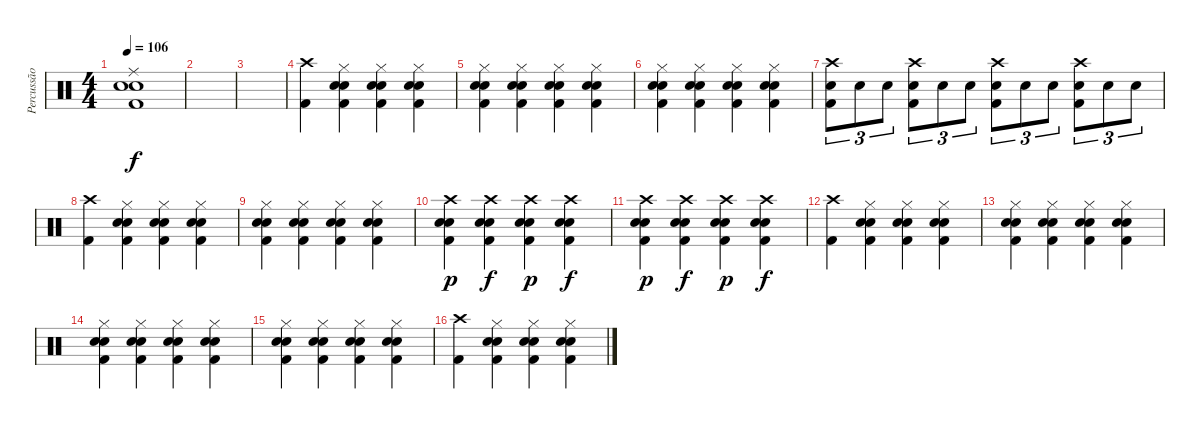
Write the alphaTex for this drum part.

\track ("Percussão" "Percussão") {instrument percussion}
\staff {score}
\articulation defaults
\ts (4 4)
\tempo 106
\clef neutral
\ks c
("Ride (middle)" "Snare (hit) 2" "Snare (hit) 2" "Kick (hit) 2").1{dy f} |
|
|
("Crash high (hit)" "Kick (hit) 2").4 ("Hi-Hat (closed)" "Snare (hit) 2" "Snare (hit) 2" "Kick (hit) 2").4 ("Hi-Hat (closed)" "Snare (hit) 2" "Snare (hit) 2" "Kick (hit) 2").4 ("Hi-Hat (closed)" "Snare (hit) 2" "Snare (hit) 2" "Kick (hit) 2").4 |
("Hi-Hat (closed)" "Snare (hit) 2" "Snare (hit) 2" "Kick (hit) 2").4 ("Hi-Hat (closed)" "Snare (hit) 2" "Snare (hit) 2" "Kick (hit) 2").4 ("Hi-Hat (closed)" "Snare (hit) 2" "Snare (hit) 2" "Kick (hit) 2").4 ("Hi-Hat (closed)" "Snare (hit) 2" "Snare (hit) 2" "Kick (hit) 2").4 |
("Hi-Hat (closed)" "Snare (hit) 2" "Snare (hit) 2" "Kick (hit) 2").4 ("Hi-Hat (closed)" "Snare (hit) 2" "Snare (hit) 2" "Kick (hit) 2").4 ("Hi-Hat (closed)" "Snare (hit) 2" "Snare (hit) 2" "Kick (hit) 2").4 ("Hi-Hat (closed)" "Snare (hit) 2" "Snare (hit) 2" "Kick (hit) 2").4 |
("Crash high (hit)" "Snare (hit) 2" "Kick (hit) 2").8{tu (3 2)} "Snare (hit) 2".8{tu (3 2)} "Snare (hit) 2".8{tu (3 2)} ("Crash high (hit)" "Snare (hit) 2" "Kick (hit) 2").8{tu (3 2)} "Snare (hit) 2".8{tu (3 2)} "Snare (hit) 2".8{tu (3 2)} ("Crash high (hit)" "Snare (hit) 2" "Kick (hit) 2").8{tu (3 2)} "Snare (hit) 2".8{tu (3 2)} "Snare (hit) 2".8{tu (3 2)} ("Crash high (hit)" "Snare (hit) 2" "Kick (hit) 2").8{tu (3 2)} "Snare (hit) 2".8{tu (3 2)} "Snare (hit) 2".8{tu (3 2)} |
("Crash high (hit)" "Kick (hit) 2").4 ("Hi-Hat (closed)" "Snare (hit) 2" "Snare (hit) 2" "Kick (hit) 2").4 ("Hi-Hat (closed)" "Snare (hit) 2" "Snare (hit) 2" "Kick (hit) 2").4 ("Hi-Hat (closed)" "Snare (hit) 2" "Snare (hit) 2" "Kick (hit) 2").4 |
("Hi-Hat (closed)" "Snare (hit) 2" "Snare (hit) 2" "Kick (hit) 2").4 ("Hi-Hat (closed)" "Snare (hit) 2" "Snare (hit) 2" "Kick (hit) 2").4 ("Hi-Hat (closed)" "Snare (hit) 2" "Snare (hit) 2" "Kick (hit) 2").4 ("Hi-Hat (closed)" "Snare (hit) 2" "Snare (hit) 2" "Kick (hit) 2").4 |
("Crash high (hit)" "Snare (hit) 2" "Snare (hit) 2" "Kick (hit) 2").4{dy p} ("Crash high (hit)" "Snare (hit) 2" "Snare (hit) 2" "Kick (hit) 2").4{dy f} ("Crash high (hit)" "Snare (hit) 2" "Snare (hit) 2" "Kick (hit) 2").4{dy p} ("Crash high (hit)" "Snare (hit) 2" "Snare (hit) 2" "Kick (hit) 2").4{dy f} |
("Crash high (hit)" "Snare (hit) 2" "Snare (hit) 2" "Kick (hit) 2").4{dy p} ("Crash high (hit)" "Snare (hit) 2" "Snare (hit) 2" "Kick (hit) 2").4{dy f} ("Crash high (hit)" "Snare (hit) 2" "Snare (hit) 2" "Kick (hit) 2").4{dy p} ("Crash high (hit)" "Snare (hit) 2" "Snare (hit) 2" "Kick (hit) 2").4{dy f} |
("Crash high (hit)" "Kick (hit) 2").4 ("Hi-Hat (closed)" "Snare (hit) 2" "Snare (hit) 2" "Kick (hit) 2").4 ("Hi-Hat (closed)" "Snare (hit) 2" "Snare (hit) 2" "Kick (hit) 2").4 ("Hi-Hat (closed)" "Snare (hit) 2" "Snare (hit) 2" "Kick (hit) 2").4 |
("Hi-Hat (closed)" "Snare (hit) 2" "Snare (hit) 2" "Kick (hit) 2").4 ("Hi-Hat (closed)" "Snare (hit) 2" "Snare (hit) 2" "Kick (hit) 2").4 ("Hi-Hat (closed)" "Snare (hit) 2" "Snare (hit) 2" "Kick (hit) 2").4 ("Hi-Hat (closed)" "Snare (hit) 2" "Snare (hit) 2" "Kick (hit) 2").4 |
("Hi-Hat (closed)" "Snare (hit) 2" "Snare (hit) 2" "Kick (hit) 2").4 ("Hi-Hat (closed)" "Snare (hit) 2" "Snare (hit) 2" "Kick (hit) 2").4 ("Hi-Hat (closed)" "Snare (hit) 2" "Snare (hit) 2" "Kick (hit) 2").4 ("Hi-Hat (closed)" "Snare (hit) 2" "Snare (hit) 2" "Kick (hit) 2").4 |
("Hi-Hat (closed)" "Snare (hit) 2" "Snare (hit) 2" "Kick (hit) 2").4 ("Hi-Hat (closed)" "Snare (hit) 2" "Snare (hit) 2" "Kick (hit) 2").4 ("Hi-Hat (closed)" "Snare (hit) 2" "Snare (hit) 2" "Kick (hit) 2").4 ("Hi-Hat (closed)" "Snare (hit) 2" "Snare (hit) 2" "Kick (hit) 2").4 |
("Crash high (hit)" "Kick (hit) 2").4 ("Hi-Hat (closed)" "Snare (hit) 2" "Snare (hit) 2" "Kick (hit) 2").4 ("Hi-Hat (closed)" "Snare (hit) 2" "Snare (hit) 2" "Kick (hit) 2").4 ("Hi-Hat (closed)" "Snare (hit) 2" "Snare (hit) 2" "Kick (hit) 2").4
